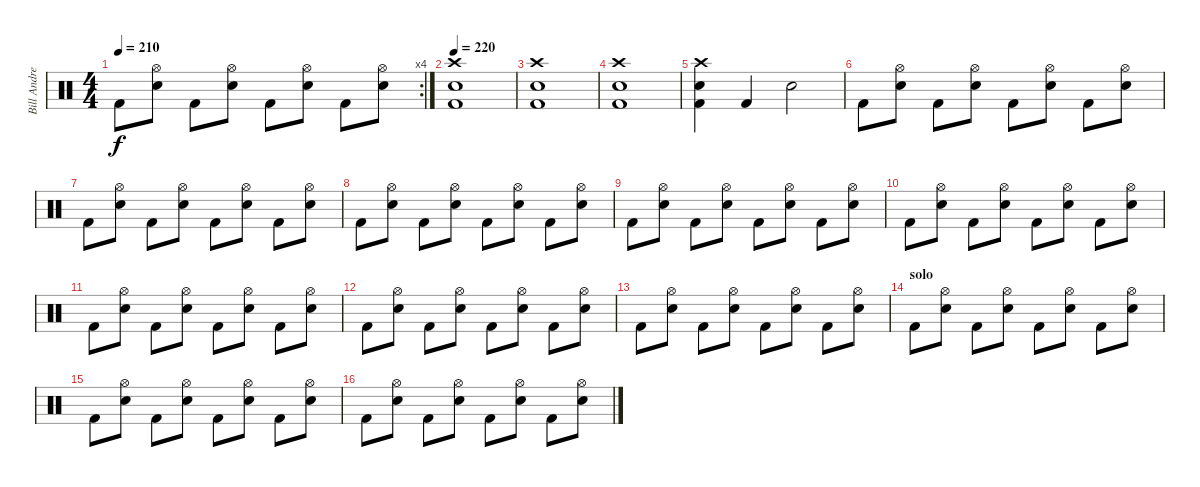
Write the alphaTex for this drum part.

\track ("Bill Andrews" "Bill Andre") {instrument percussion}
\staff {score}
\articulation defaults
\rc 4
\ts (4 4)
\tempo 210
\clef neutral
\ks c "Kick (hit) 2".8{dy f}
("Hi-Hat (open)" "Snare (hit) 2").8 "Kick (hit) 2".8 ("Hi-Hat (open)" "Snare (hit) 2").8 "Kick (hit) 2".8 ("Hi-Hat (open)" "Snare (hit) 2").8 "Kick (hit) 2".8 ("Hi-Hat (open)" "Snare (hit) 2").8 |
\tempo 220
("Crash high (hit)" "Snare (hit) 2" "Kick (hit) 2").1 |
("Crash high (hit)" "Snare (hit) 2" "Kick (hit) 2").1 |
("Crash high (hit)" "Snare (hit) 2" "Kick (hit) 2").1 |
("Crash high (hit)" "Snare (hit) 2" "Kick (hit) 2").4 "Kick (hit) 2".4 "Snare (hit) 2".2 |
"Kick (hit) 2".8 ("Hi-Hat (open)" "Snare (hit) 2").8 "Kick (hit) 2".8 ("Hi-Hat (open)" "Snare (hit) 2").8 "Kick (hit) 2".8 ("Hi-Hat (open)" "Snare (hit) 2").8 "Kick (hit) 2".8 ("Hi-Hat (open)" "Snare (hit) 2").8 |
"Kick (hit) 2".8 ("Hi-Hat (open)" "Snare (hit) 2").8 "Kick (hit) 2".8 ("Hi-Hat (open)" "Snare (hit) 2").8 "Kick (hit) 2".8 ("Hi-Hat (open)" "Snare (hit) 2").8 "Kick (hit) 2".8 ("Hi-Hat (open)" "Snare (hit) 2").8 |
"Kick (hit) 2".8 ("Hi-Hat (open)" "Snare (hit) 2").8 "Kick (hit) 2".8 ("Hi-Hat (open)" "Snare (hit) 2").8 "Kick (hit) 2".8 ("Hi-Hat (open)" "Snare (hit) 2").8 "Kick (hit) 2".8 ("Hi-Hat (open)" "Snare (hit) 2").8 |
"Kick (hit) 2".8 ("Hi-Hat (open)" "Snare (hit) 2").8 "Kick (hit) 2".8 ("Hi-Hat (open)" "Snare (hit) 2").8 "Kick (hit) 2".8 ("Hi-Hat (open)" "Snare (hit) 2").8 "Kick (hit) 2".8 ("Hi-Hat (open)" "Snare (hit) 2").8 |
"Kick (hit) 2".8 ("Hi-Hat (open)" "Snare (hit) 2").8 "Kick (hit) 2".8 ("Hi-Hat (open)" "Snare (hit) 2").8 "Kick (hit) 2".8 ("Hi-Hat (open)" "Snare (hit) 2").8 "Kick (hit) 2".8 ("Hi-Hat (open)" "Snare (hit) 2").8 |
"Kick (hit) 2".8 ("Hi-Hat (open)" "Snare (hit) 2").8 "Kick (hit) 2".8 ("Hi-Hat (open)" "Snare (hit) 2").8 "Kick (hit) 2".8 ("Hi-Hat (open)" "Snare (hit) 2").8 "Kick (hit) 2".8 ("Hi-Hat (open)" "Snare (hit) 2").8 |
"Kick (hit) 2".8 ("Hi-Hat (open)" "Snare (hit) 2").8 "Kick (hit) 2".8 ("Hi-Hat (open)" "Snare (hit) 2").8 "Kick (hit) 2".8 ("Hi-Hat (open)" "Snare (hit) 2").8 "Kick (hit) 2".8 ("Hi-Hat (open)" "Snare (hit) 2").8 |
"Kick (hit) 2".8 ("Hi-Hat (open)" "Snare (hit) 2").8 "Kick (hit) 2".8 ("Hi-Hat (open)" "Snare (hit) 2").8 "Kick (hit) 2".8 ("Hi-Hat (open)" "Snare (hit) 2").8 "Kick (hit) 2".8 ("Hi-Hat (open)" "Snare (hit) 2").8 |
\section ("" "solo")
"Kick (hit) 2".8 ("Hi-Hat (open)" "Snare (hit) 2").8 "Kick (hit) 2".8 ("Hi-Hat (open)" "Snare (hit) 2").8 "Kick (hit) 2".8 ("Hi-Hat (open)" "Snare (hit) 2").8 "Kick (hit) 2".8 ("Hi-Hat (open)" "Snare (hit) 2").8 |
"Kick (hit) 2".8 ("Hi-Hat (open)" "Snare (hit) 2").8 "Kick (hit) 2".8 ("Hi-Hat (open)" "Snare (hit) 2").8 "Kick (hit) 2".8 ("Hi-Hat (open)" "Snare (hit) 2").8 "Kick (hit) 2".8 ("Hi-Hat (open)" "Snare (hit) 2").8 |
"Kick (hit) 2".8 ("Hi-Hat (open)" "Snare (hit) 2").8 "Kick (hit) 2".8 ("Hi-Hat (open)" "Snare (hit) 2").8 "Kick (hit) 2".8 ("Hi-Hat (open)" "Snare (hit) 2").8 "Kick (hit) 2".8 ("Hi-Hat (open)" "Snare (hit) 2").8
